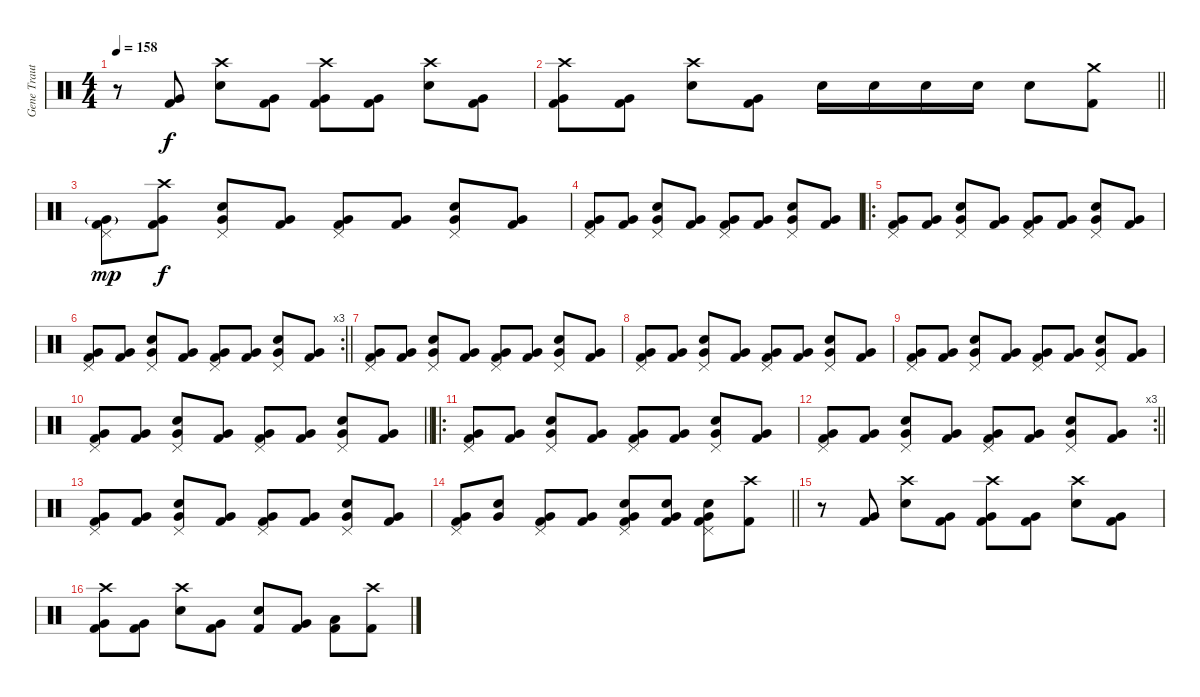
\track ("Gene Trautmann" "Gene Traut") {instrument percussion}
\staff {score}
\articulation defaults
\ts (4 4)
\tempo 158
\clef neutral
\ks c
r.8{dy f} ("Very Low Tom (hit)" "Kick (hit) 2").8 ("Crash high (hit)" "Electric Snare (hit)").8 ("Very Low Tom (hit)" "Kick (hit) 2").8 ("Crash high (hit)" "Very Low Tom (hit)" "Kick (hit) 2").8 ("Very Low Tom (hit)" "Kick (hit) 2").8 ("Crash high (hit)" "Electric Snare (hit)").8 ("Very Low Tom (hit)" "Kick (hit) 2").8 |
\barLineRight lightlight
("Crash high (hit)" "Very Low Tom (hit)" "Kick (hit) 2").8 ("Very Low Tom (hit)" "Kick (hit) 2").8 ("Crash high (hit)" "Electric Snare (hit)").8 ("Very Low Tom (hit)" "Kick (hit) 2").8 "Electric Snare (hit)".16 "Electric Snare (hit)".16 "Electric Snare (hit)".16 "Electric Snare (hit)".16 "Electric Snare (hit)".8 ("Crash medium (hit)" "Kick (hit) 2").8 |
\section ("" "")
("Pedal Hi-Hat (hit)" "Very Low Tom (hit)"{g} "Kick (hit) 2").8{dy mp} ("Crash high (hit)" "Very Low Tom (hit)" "Kick (hit) 2").8{dy f} ("Pedal Hi-Hat (hit)" "Electric Snare (hit)" "Very Low Tom (hit)").8 ("Very Low Tom (hit)" "Kick (hit) 2").8 ("Pedal Hi-Hat (hit)" "Very Low Tom (hit)" "Kick (hit) 2").8 ("Very Low Tom (hit)" "Kick (hit) 2").8 ("Pedal Hi-Hat (hit)" "Electric Snare (hit)" "Very Low Tom (hit)").8 ("Very Low Tom (hit)" "Kick (hit) 2").8 |
("Pedal Hi-Hat (hit)" "Very Low Tom (hit)" "Kick (hit) 2").8 ("Very Low Tom (hit)" "Kick (hit) 2").8 ("Pedal Hi-Hat (hit)" "Electric Snare (hit)" "Very Low Tom (hit)").8 ("Very Low Tom (hit)" "Kick (hit) 2").8 ("Pedal Hi-Hat (hit)" "Very Low Tom (hit)" "Kick (hit) 2").8 ("Very Low Tom (hit)" "Kick (hit) 2").8 ("Pedal Hi-Hat (hit)" "Electric Snare (hit)" "Very Low Tom (hit)").8 ("Very Low Tom (hit)" "Kick (hit) 2").8 |
\ro
("Pedal Hi-Hat (hit)" "Very Low Tom (hit)" "Kick (hit) 2").8 ("Very Low Tom (hit)" "Kick (hit) 2").8 ("Pedal Hi-Hat (hit)" "Electric Snare (hit)" "Very Low Tom (hit)").8 ("Very Low Tom (hit)" "Kick (hit) 2").8 ("Pedal Hi-Hat (hit)" "Very Low Tom (hit)" "Kick (hit) 2").8 ("Very Low Tom (hit)" "Kick (hit) 2").8 ("Pedal Hi-Hat (hit)" "Electric Snare (hit)" "Very Low Tom (hit)").8 ("Very Low Tom (hit)" "Kick (hit) 2").8 |
\rc 3
\barLineRight lightlight
("Pedal Hi-Hat (hit)" "Very Low Tom (hit)" "Kick (hit) 2").8 ("Very Low Tom (hit)" "Kick (hit) 2").8 ("Pedal Hi-Hat (hit)" "Electric Snare (hit)" "Very Low Tom (hit)").8 ("Very Low Tom (hit)" "Kick (hit) 2").8 ("Pedal Hi-Hat (hit)" "Very Low Tom (hit)" "Kick (hit) 2").8 ("Very Low Tom (hit)" "Kick (hit) 2").8 ("Pedal Hi-Hat (hit)" "Electric Snare (hit)" "Very Low Tom (hit)").8 ("Very Low Tom (hit)" "Kick (hit) 2").8 |
\section ("" "")
("Pedal Hi-Hat (hit)" "Very Low Tom (hit)" "Kick (hit) 2").8 ("Very Low Tom (hit)" "Kick (hit) 2").8 ("Pedal Hi-Hat (hit)" "Electric Snare (hit)" "Very Low Tom (hit)").8 ("Very Low Tom (hit)" "Kick (hit) 2").8 ("Pedal Hi-Hat (hit)" "Very Low Tom (hit)" "Kick (hit) 2").8 ("Very Low Tom (hit)" "Kick (hit) 2").8 ("Pedal Hi-Hat (hit)" "Electric Snare (hit)" "Very Low Tom (hit)").8 ("Very Low Tom (hit)" "Kick (hit) 2").8 |
("Pedal Hi-Hat (hit)" "Very Low Tom (hit)" "Kick (hit) 2").8 ("Very Low Tom (hit)" "Kick (hit) 2").8 ("Pedal Hi-Hat (hit)" "Electric Snare (hit)" "Very Low Tom (hit)").8 ("Very Low Tom (hit)" "Kick (hit) 2").8 ("Pedal Hi-Hat (hit)" "Very Low Tom (hit)" "Kick (hit) 2").8 ("Very Low Tom (hit)" "Kick (hit) 2").8 ("Pedal Hi-Hat (hit)" "Electric Snare (hit)" "Very Low Tom (hit)").8 ("Very Low Tom (hit)" "Kick (hit) 2").8 |
("Pedal Hi-Hat (hit)" "Very Low Tom (hit)" "Kick (hit) 2").8 ("Very Low Tom (hit)" "Kick (hit) 2").8 ("Pedal Hi-Hat (hit)" "Electric Snare (hit)" "Very Low Tom (hit)").8 ("Very Low Tom (hit)" "Kick (hit) 2").8 ("Pedal Hi-Hat (hit)" "Very Low Tom (hit)" "Kick (hit) 2").8 ("Very Low Tom (hit)" "Kick (hit) 2").8 ("Pedal Hi-Hat (hit)" "Electric Snare (hit)" "Very Low Tom (hit)").8 ("Very Low Tom (hit)" "Kick (hit) 2").8 |
\barLineRight lightlight
("Pedal Hi-Hat (hit)" "Very Low Tom (hit)" "Kick (hit) 2").8 ("Very Low Tom (hit)" "Kick (hit) 2").8 ("Pedal Hi-Hat (hit)" "Electric Snare (hit)" "Very Low Tom (hit)").8 ("Very Low Tom (hit)" "Kick (hit) 2").8 ("Pedal Hi-Hat (hit)" "Very Low Tom (hit)" "Kick (hit) 2").8 ("Very Low Tom (hit)" "Kick (hit) 2").8 ("Pedal Hi-Hat (hit)" "Electric Snare (hit)" "Very Low Tom (hit)").8 ("Very Low Tom (hit)" "Kick (hit) 2").8 |
\ro
("Pedal Hi-Hat (hit)" "Very Low Tom (hit)" "Kick (hit) 2").8 ("Very Low Tom (hit)" "Kick (hit) 2").8 ("Pedal Hi-Hat (hit)" "Electric Snare (hit)" "Very Low Tom (hit)").8 ("Very Low Tom (hit)" "Kick (hit) 2").8 ("Pedal Hi-Hat (hit)" "Very Low Tom (hit)" "Kick (hit) 2").8 ("Very Low Tom (hit)" "Kick (hit) 2").8 ("Pedal Hi-Hat (hit)" "Electric Snare (hit)" "Very Low Tom (hit)").8 ("Very Low Tom (hit)" "Kick (hit) 2").8 |
\rc 3
\barLineRight lightlight
("Pedal Hi-Hat (hit)" "Very Low Tom (hit)" "Kick (hit) 2").8 ("Very Low Tom (hit)" "Kick (hit) 2").8 ("Pedal Hi-Hat (hit)" "Electric Snare (hit)" "Very Low Tom (hit)").8 ("Very Low Tom (hit)" "Kick (hit) 2").8 ("Pedal Hi-Hat (hit)" "Very Low Tom (hit)" "Kick (hit) 2").8 ("Very Low Tom (hit)" "Kick (hit) 2").8 ("Pedal Hi-Hat (hit)" "Electric Snare (hit)" "Very Low Tom (hit)").8 ("Very Low Tom (hit)" "Kick (hit) 2").8 |
("Pedal Hi-Hat (hit)" "Very Low Tom (hit)" "Kick (hit) 2").8 ("Very Low Tom (hit)" "Kick (hit) 2").8 ("Pedal Hi-Hat (hit)" "Electric Snare (hit)" "Very Low Tom (hit)").8 ("Very Low Tom (hit)" "Kick (hit) 2").8 ("Pedal Hi-Hat (hit)" "Very Low Tom (hit)" "Kick (hit) 2").8 ("Very Low Tom (hit)" "Kick (hit) 2").8 ("Pedal Hi-Hat (hit)" "Electric Snare (hit)" "Very Low Tom (hit)").8 ("Very Low Tom (hit)" "Kick (hit) 2").8 |
\barLineRight lightlight
("Pedal Hi-Hat (hit)" "Very Low Tom (hit)" "Kick (hit) 2").8 ("Electric Snare (hit)" "Very Low Tom (hit)").8 ("Pedal Hi-Hat (hit)" "Very Low Tom (hit)" "Kick (hit) 2").8 ("Very Low Tom (hit)" "Kick (hit) 2").8 ("Pedal Hi-Hat (hit)" "Electric Snare (hit)" "Very Low Tom (hit)" "Kick (hit) 2").8 ("Electric Snare (hit)" "Very Low Tom (hit)" "Kick (hit) 2").8 ("Pedal Hi-Hat (hit)" "Electric Snare (hit)" "Very Low Tom (hit)" "Kick (hit) 2").8 ("Crash high (hit)" "Kick (hit) 2").8 |
\section ("" "")
r.8 ("Very Low Tom (hit)" "Kick (hit) 2").8 ("Crash high (hit)" "Electric Snare (hit)").8 ("Very Low Tom (hit)" "Kick (hit) 2").8 ("Crash high (hit)" "Very Low Tom (hit)" "Kick (hit) 2").8 ("Very Low Tom (hit)" "Kick (hit) 2").8 ("Crash high (hit)" "Electric Snare (hit)").8 ("Very Low Tom (hit)" "Kick (hit) 2").8 |
("Crash high (hit)" "Very Low Tom (hit)" "Kick (hit) 2").8 ("Very Low Tom (hit)" "Kick (hit) 2").8 ("Crash high (hit)" "Electric Snare (hit)").8 ("Very Low Tom (hit)" "Kick (hit) 2").8 ("Electric Snare (hit)" "Kick (hit) 2").8 ("Very Low Tom (hit)" "Kick (hit) 2").8 ("Low Floor Tom (hit)" "Kick (hit) 2").8 ("Crash high (hit)" "Kick (hit) 2").8
